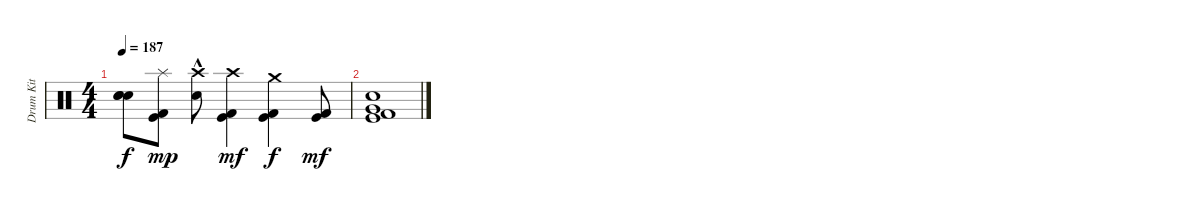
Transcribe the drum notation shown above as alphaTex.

\track ("Drum Kit" "Drum Kit") {instrument percussion}
\staff {score}
\articulation defaults
\ts (4 4)
\tempo 187
\clef neutral
\ks c
("Snare (hit)"{t} "Snare (hit)"{t} "Snare (hit)"{t}).8{dy f} ("Kick (hit) 2" "Kick (hit)" "Splash (hit)").8{dy mp} ("Electric Snare (hit)"{hac} "Crash high (hit)").8 ("Kick (hit) 2" "Kick (hit)" "Crash high (hit)").4{dy mf} ("Kick (hit) 2" "Kick (hit)" "Crash medium (hit)").4{dy f} ("Kick (hit) 2" "Kick (hit)").8{dy mf} |
("Kick (hit) 2" "Kick (hit)" "Very Low Tom (hit)" "Electric Snare (hit)").1
